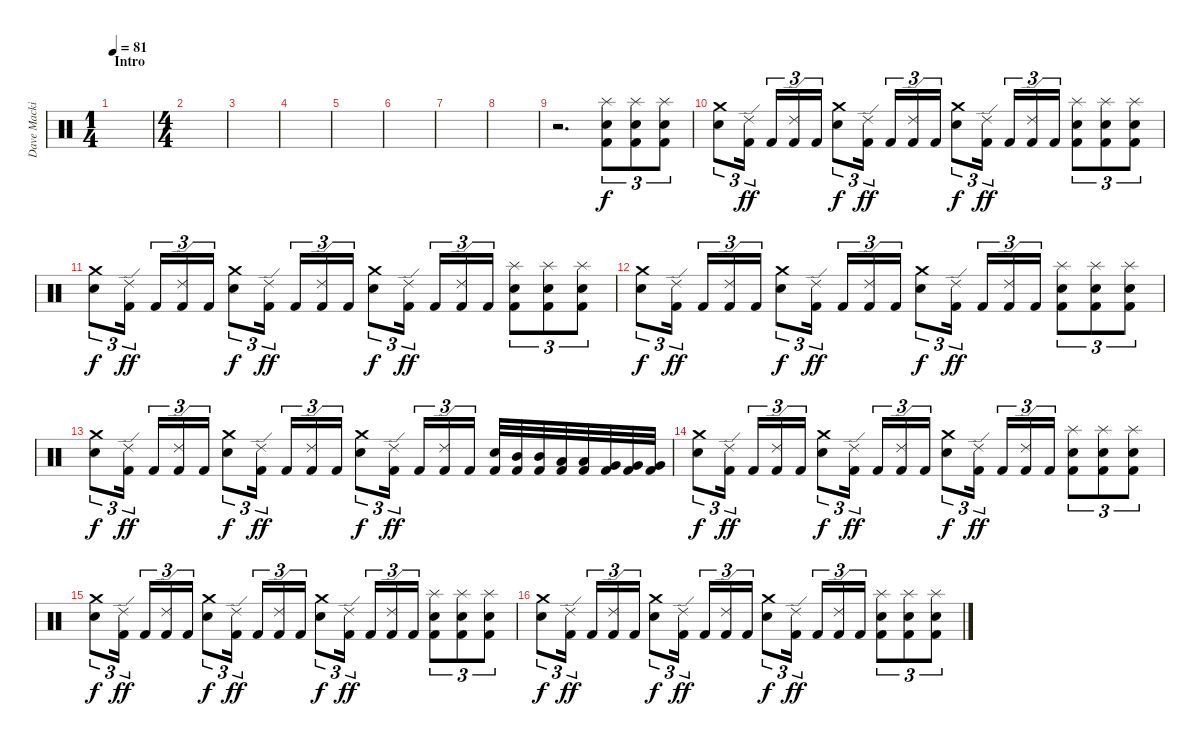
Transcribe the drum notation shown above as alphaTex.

\track ("Dave Mackintosh" "Dave Macki") {instrument percussion}
\staff {score}
\articulation defaults
\ts (1 4)
\section ("" "Intro")
\tempo 81
\clef neutral
\ks c
|
\ts (4 4)
|
|
|
|
|
|
|
r.2{d} ("Splash (hit)" "Electric Snare (hit)" "Kick (hit) 2").8{tu (3 2)} ("Splash (hit)" "Electric Snare (hit)" "Kick (hit) 2").8{tu (3 2)} ("Splash (hit)" "Electric Snare (hit)" "Kick (hit) 2").8{tu (3 2)} |
("Crash medium (hit)" "Electric Snare (hit)").8{tu (3 2) dy f} ("Ride (edge) 2" "Kick (hit) 2").16{tu (3 2) dy ff} "Kick (hit) 2".16{tu (3 2)} ("Ride (edge) 2" "Kick (hit) 2").16{tu (3 2)} "Kick (hit) 2".16{tu (3 2)} ("Crash medium (hit)" "Electric Snare (hit)").8{tu (3 2) dy f} ("Ride (edge) 2" "Kick (hit) 2").16{tu (3 2) dy ff} "Kick (hit) 2".16{tu (3 2)} ("Ride (edge) 2" "Kick (hit) 2").16{tu (3 2)} "Kick (hit) 2".16{tu (3 2)} ("Crash medium (hit)" "Electric Snare (hit)").8{tu (3 2) dy f} ("Ride (edge) 2" "Kick (hit) 2").16{tu (3 2) dy ff} "Kick (hit) 2".16{tu (3 2)} ("Ride (edge) 2" "Kick (hit) 2").16{tu (3 2)} "Kick (hit) 2".16{tu (3 2)} ("Splash (hit)" "Electric Snare (hit)" "Kick (hit) 2").8{tu (3 2)} ("Splash (hit)" "Electric Snare (hit)" "Kick (hit) 2").8{tu (3 2)} ("Splash (hit)" "Electric Snare (hit)" "Kick (hit) 2").8{tu (3 2)} |
("Crash medium (hit)" "Electric Snare (hit)").8{tu (3 2) dy f} ("Ride (edge) 2" "Kick (hit) 2").16{tu (3 2) dy ff} "Kick (hit) 2".16{tu (3 2)} ("Ride (edge) 2" "Kick (hit) 2").16{tu (3 2)} "Kick (hit) 2".16{tu (3 2)} ("Crash medium (hit)" "Electric Snare (hit)").8{tu (3 2) dy f} ("Ride (edge) 2" "Kick (hit) 2").16{tu (3 2) dy ff} "Kick (hit) 2".16{tu (3 2)} ("Ride (edge) 2" "Kick (hit) 2").16{tu (3 2)} "Kick (hit) 2".16{tu (3 2)} ("Crash medium (hit)" "Electric Snare (hit)").8{tu (3 2) dy f} ("Ride (edge) 2" "Kick (hit) 2").16{tu (3 2) dy ff} "Kick (hit) 2".16{tu (3 2)} ("Ride (edge) 2" "Kick (hit) 2").16{tu (3 2)} "Kick (hit) 2".16{tu (3 2)} ("Splash (hit)" "Electric Snare (hit)" "Kick (hit) 2").8{tu (3 2)} ("Splash (hit)" "Electric Snare (hit)" "Kick (hit) 2").8{tu (3 2)} ("Splash (hit)" "Electric Snare (hit)" "Kick (hit) 2").8{tu (3 2)} |
("Crash medium (hit)" "Electric Snare (hit)").8{tu (3 2) dy f} ("Ride (edge) 2" "Kick (hit) 2").16{tu (3 2) dy ff} "Kick (hit) 2".16{tu (3 2)} ("Ride (edge) 2" "Kick (hit) 2").16{tu (3 2)} "Kick (hit) 2".16{tu (3 2)} ("Crash medium (hit)" "Electric Snare (hit)").8{tu (3 2) dy f} ("Ride (edge) 2" "Kick (hit) 2").16{tu (3 2) dy ff} "Kick (hit) 2".16{tu (3 2)} ("Ride (edge) 2" "Kick (hit) 2").16{tu (3 2)} "Kick (hit) 2".16{tu (3 2)} ("Crash medium (hit)" "Electric Snare (hit)").8{tu (3 2) dy f} ("Ride (edge) 2" "Kick (hit) 2").16{tu (3 2) dy ff} "Kick (hit) 2".16{tu (3 2)} ("Ride (edge) 2" "Kick (hit) 2").16{tu (3 2)} "Kick (hit) 2".16{tu (3 2)} ("Splash (hit)" "Electric Snare (hit)" "Kick (hit) 2").8{tu (3 2)} ("Splash (hit)" "Electric Snare (hit)" "Kick (hit) 2").8{tu (3 2)} ("Splash (hit)" "Electric Snare (hit)" "Kick (hit) 2").8{tu (3 2)} |
("Crash medium (hit)" "Electric Snare (hit)").8{tu (3 2) dy f} ("Ride (edge) 2" "Kick (hit) 2").16{tu (3 2) dy ff} "Kick (hit) 2".16{tu (3 2)} ("Ride (edge) 2" "Kick (hit) 2").16{tu (3 2)} "Kick (hit) 2".16{tu (3 2)} ("Crash medium (hit)" "Electric Snare (hit)").8{tu (3 2) dy f} ("Ride (edge) 2" "Kick (hit) 2").16{tu (3 2) dy ff} "Kick (hit) 2".16{tu (3 2)} ("Ride (edge) 2" "Kick (hit) 2").16{tu (3 2)} "Kick (hit) 2".16{tu (3 2)} ("Crash medium (hit)" "Electric Snare (hit)").8{tu (3 2) dy f} ("Ride (edge) 2" "Kick (hit) 2").16{tu (3 2) dy ff} "Kick (hit) 2".16{tu (3 2)} ("Ride (edge) 2" "Kick (hit) 2").16{tu (3 2)} "Kick (hit) 2".16{tu (3 2)} ("Electric Snare (hit)" "Kick (hit) 2").32 ("Mid Tom (hit)" "Kick (hit) 2").32 ("Mid Tom (hit)" "Kick (hit) 2").32 ("Low Tom (hit)" "Kick (hit) 2").32 ("Low Tom (hit)" "Kick (hit) 2").32 ("Very Low Tom (hit)" "Kick (hit) 2").32 ("Very Low Tom (hit)" "Kick (hit) 2").32 ("Very Low Tom (hit)" "Kick (hit) 2").32 |
("Crash medium (hit)" "Electric Snare (hit)").8{tu (3 2) dy f} ("Ride (edge) 2" "Kick (hit) 2").16{tu (3 2) dy ff} "Kick (hit) 2".16{tu (3 2)} ("Ride (edge) 2" "Kick (hit) 2").16{tu (3 2)} "Kick (hit) 2".16{tu (3 2)} ("Crash medium (hit)" "Electric Snare (hit)").8{tu (3 2) dy f} ("Ride (edge) 2" "Kick (hit) 2").16{tu (3 2) dy ff} "Kick (hit) 2".16{tu (3 2)} ("Ride (edge) 2" "Kick (hit) 2").16{tu (3 2)} "Kick (hit) 2".16{tu (3 2)} ("Crash medium (hit)" "Electric Snare (hit)").8{tu (3 2) dy f} ("Ride (edge) 2" "Kick (hit) 2").16{tu (3 2) dy ff} "Kick (hit) 2".16{tu (3 2)} ("Ride (edge) 2" "Kick (hit) 2").16{tu (3 2)} "Kick (hit) 2".16{tu (3 2)} ("Splash (hit)" "Electric Snare (hit)" "Kick (hit) 2").8{tu (3 2)} ("Splash (hit)" "Electric Snare (hit)" "Kick (hit) 2").8{tu (3 2)} ("Splash (hit)" "Electric Snare (hit)" "Kick (hit) 2").8{tu (3 2)} |
("Crash medium (hit)" "Electric Snare (hit)").8{tu (3 2) dy f} ("Ride (edge) 2" "Kick (hit) 2").16{tu (3 2) dy ff} "Kick (hit) 2".16{tu (3 2)} ("Ride (edge) 2" "Kick (hit) 2").16{tu (3 2)} "Kick (hit) 2".16{tu (3 2)} ("Crash medium (hit)" "Electric Snare (hit)").8{tu (3 2) dy f} ("Ride (edge) 2" "Kick (hit) 2").16{tu (3 2) dy ff} "Kick (hit) 2".16{tu (3 2)} ("Ride (edge) 2" "Kick (hit) 2").16{tu (3 2)} "Kick (hit) 2".16{tu (3 2)} ("Crash medium (hit)" "Electric Snare (hit)").8{tu (3 2) dy f} ("Ride (edge) 2" "Kick (hit) 2").16{tu (3 2) dy ff} "Kick (hit) 2".16{tu (3 2)} ("Ride (edge) 2" "Kick (hit) 2").16{tu (3 2)} "Kick (hit) 2".16{tu (3 2)} ("Splash (hit)" "Electric Snare (hit)" "Kick (hit) 2").8{tu (3 2)} ("Splash (hit)" "Electric Snare (hit)" "Kick (hit) 2").8{tu (3 2)} ("Splash (hit)" "Electric Snare (hit)" "Kick (hit) 2").8{tu (3 2)} |
("Crash medium (hit)" "Electric Snare (hit)").8{tu (3 2) dy f} ("Ride (edge) 2" "Kick (hit) 2").16{tu (3 2) dy ff} "Kick (hit) 2".16{tu (3 2)} ("Ride (edge) 2" "Kick (hit) 2").16{tu (3 2)} "Kick (hit) 2".16{tu (3 2)} ("Crash medium (hit)" "Electric Snare (hit)").8{tu (3 2) dy f} ("Ride (edge) 2" "Kick (hit) 2").16{tu (3 2) dy ff} "Kick (hit) 2".16{tu (3 2)} ("Ride (edge) 2" "Kick (hit) 2").16{tu (3 2)} "Kick (hit) 2".16{tu (3 2)} ("Crash medium (hit)" "Electric Snare (hit)").8{tu (3 2) dy f} ("Ride (edge) 2" "Kick (hit) 2").16{tu (3 2) dy ff} "Kick (hit) 2".16{tu (3 2)} ("Ride (edge) 2" "Kick (hit) 2").16{tu (3 2)} "Kick (hit) 2".16{tu (3 2)} ("Splash (hit)" "Electric Snare (hit)" "Kick (hit) 2").8{tu (3 2)} ("Splash (hit)" "Electric Snare (hit)" "Kick (hit) 2").8{tu (3 2)} ("Splash (hit)" "Electric Snare (hit)" "Kick (hit) 2").8{tu (3 2)}
